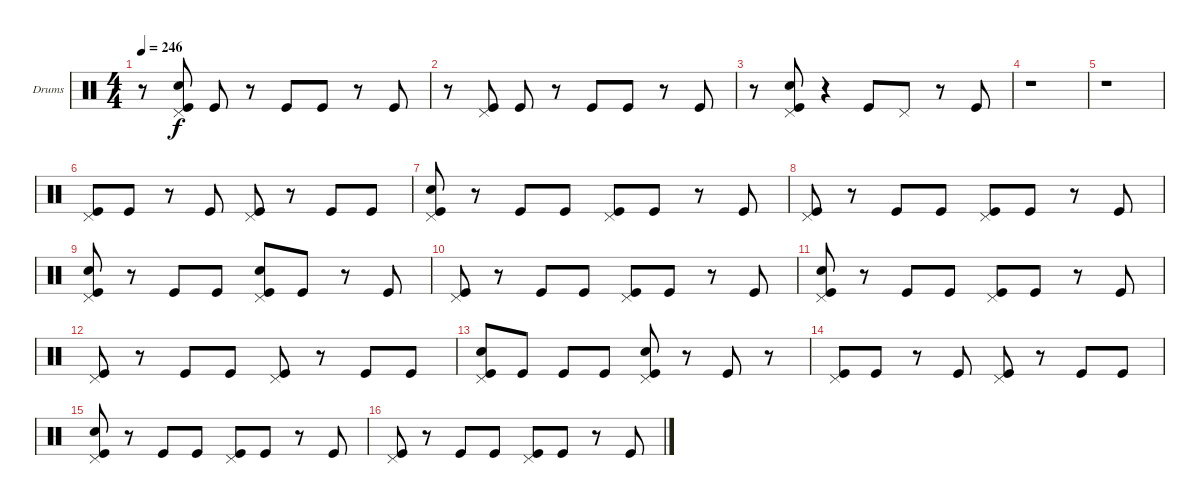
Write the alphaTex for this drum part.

\bracketExtendMode groupsimilarinstruments
\firstSystemTrackNameOrientation horizontal
\otherSystemsTrackNameOrientation horizontal
\track ("Drumkit" "Drums") {instrument percussion}
\staff {score}
\articulation defaults
\ts (4 4)
\tempo 246
\clef neutral
\ks c
r.8{dy f} ("Snare (hit) 2" "Pedal Hi-Hat (hit)" "Kick (hit)").8 "Kick (hit)".8 r.8 "Kick (hit)".8 "Kick (hit)".8 r.8 "Kick (hit)".8 |
r.8 ("Pedal Hi-Hat (hit)" "Kick (hit)").8 "Kick (hit)".8 r.8 "Kick (hit)".8 "Kick (hit)".8 r.8 "Kick (hit)".8 |
r.8 ("Kick (hit)" "Pedal Hi-Hat (hit)" "Snare (hit) 2").8 r.4 "Kick (hit)".8 "Pedal Hi-Hat (hit)".8 r.8 "Kick (hit)".8 |
r.1 |
r.1 |
("Kick (hit)" "Pedal Hi-Hat (hit)").8 "Kick (hit)".8 r.8 "Kick (hit)".8 ("Pedal Hi-Hat (hit)" "Kick (hit)").8 r.8 "Kick (hit)".8 "Kick (hit)".8 |
("Pedal Hi-Hat (hit)" "Snare (hit) 2" "Kick (hit)").8 r.8 "Kick (hit)".8 "Kick (hit)".8 ("Pedal Hi-Hat (hit)" "Kick (hit)").8 "Kick (hit)".8 r.8 "Kick (hit)".8 |
("Kick (hit)" "Pedal Hi-Hat (hit)").8 r.8 "Kick (hit)".8 "Kick (hit)".8 ("Pedal Hi-Hat (hit)" "Kick (hit)").8 "Kick (hit)".8 r.8 "Kick (hit)".8 |
("Pedal Hi-Hat (hit)" "Snare (hit) 2" "Kick (hit)").8 r.8 "Kick (hit)".8 "Kick (hit)".8 ("Kick (hit)" "Pedal Hi-Hat (hit)" "Snare (hit) 2").8 "Kick (hit)".8 r.8 "Kick (hit)".8 |
("Pedal Hi-Hat (hit)" "Kick (hit)").8 r.8 "Kick (hit)".8 "Kick (hit)".8 ("Pedal Hi-Hat (hit)" "Kick (hit)").8 "Kick (hit)".8 r.8 "Kick (hit)".8 |
("Pedal Hi-Hat (hit)" "Snare (hit) 2" "Kick (hit)").8 r.8 "Kick (hit)".8 "Kick (hit)".8 ("Kick (hit)" "Pedal Hi-Hat (hit)").8 "Kick (hit)".8 r.8 "Kick (hit)".8 |
("Kick (hit)" "Pedal Hi-Hat (hit)").8 r.8 "Kick (hit)".8 "Kick (hit)".8 ("Pedal Hi-Hat (hit)" "Kick (hit)").8 r.8 "Kick (hit)".8 "Kick (hit)".8 |
("Pedal Hi-Hat (hit)" "Snare (hit) 2" "Kick (hit)").8 "Kick (hit)".8 "Kick (hit)".8 "Kick (hit)".8 ("Kick (hit)" "Pedal Hi-Hat (hit)" "Snare (hit) 2").8 r.8 "Kick (hit)".8 r.8 |
("Kick (hit)" "Pedal Hi-Hat (hit)").8 "Kick (hit)".8 r.8 "Kick (hit)".8 ("Pedal Hi-Hat (hit)" "Kick (hit)").8 r.8 "Kick (hit)".8 "Kick (hit)".8 |
("Pedal Hi-Hat (hit)" "Snare (hit) 2" "Kick (hit)").8 r.8 "Kick (hit)".8 "Kick (hit)".8 ("Pedal Hi-Hat (hit)" "Kick (hit)").8 "Kick (hit)".8 r.8 "Kick (hit)".8 |
("Kick (hit)" "Pedal Hi-Hat (hit)").8 r.8 "Kick (hit)".8 "Kick (hit)".8 ("Pedal Hi-Hat (hit)" "Kick (hit)").8 "Kick (hit)".8 r.8 "Kick (hit)".8
